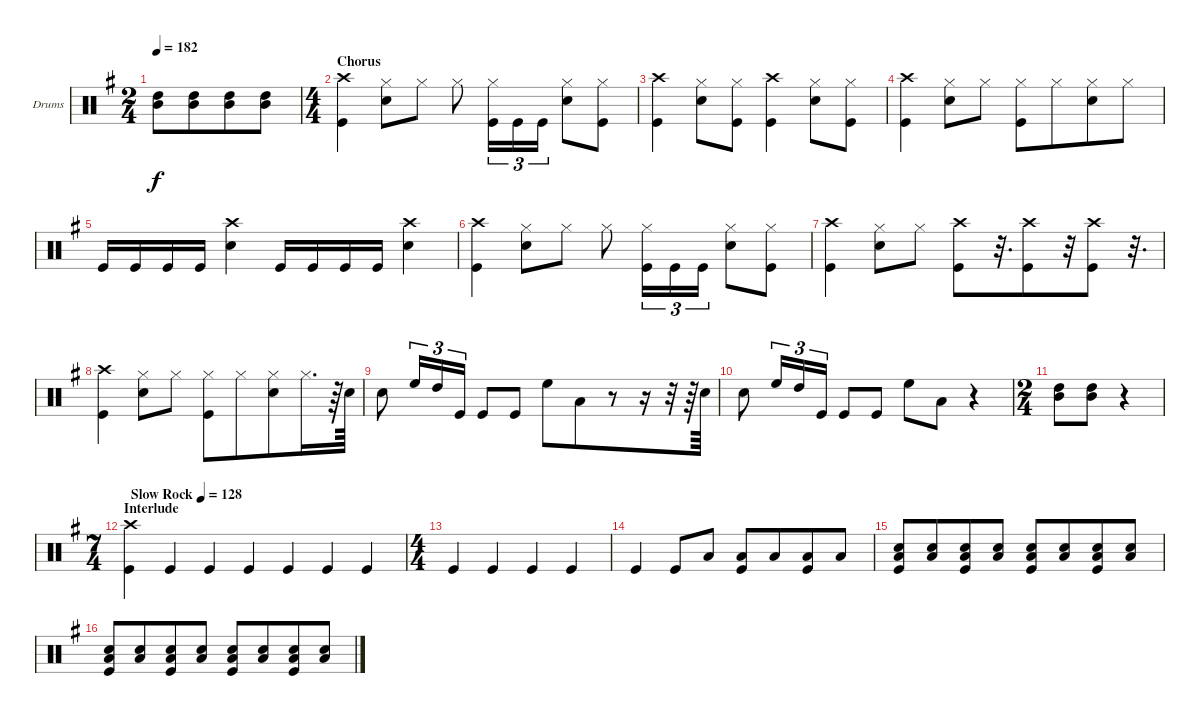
\bracketExtendMode groupsimilarinstruments
\firstSystemTrackNameOrientation horizontal
\otherSystemsTrackNameOrientation horizontal
\track ("Drumkit" "Drums") {instrument percussion}
\staff {score}
\articulation defaults
\ts (2 4)
\beaming (8 4 4 6)
\tempo 182
\clef neutral
\scale
1.07314
\ks g
("High Tom (hit)" "Mid Tom (hit)").8{dy f} ("High Tom (hit)" "Mid Tom (hit)").8 ("High Tom (hit)" "Mid Tom (hit)").8 ("High Tom (hit)" "Mid Tom (hit)").8 |
\ts (4 4)
\beaming (8 4 4 6)
\section ("" "Chorus")
\scale
0.92686 ("Kick (hit)" "Crash high (hit)").4 ("Snare (hit) 2" "Hi-Hat (closed)").8 "Hi-Hat (closed)".8 "Hi-Hat (closed)".8 ("Kick (hit)" "Hi-Hat (closed)").16{tu (3 2)} "Kick (hit)".16{tu (3 2)} "Kick (hit)".16{tu (3 2)} ("Snare (hit) 2" "Hi-Hat (closed)").8 ("Kick (hit)" "Hi-Hat (closed)").8 |
\scale
1.04288 ("Kick (hit)" "Crash high (hit)").4 ("Hi-Hat (closed)" "Snare (hit) 2").8 ("Kick (hit)" "Hi-Hat (closed)").8 ("Crash high (hit)" "Kick (hit)").4 ("Hi-Hat (closed)" "Snare (hit) 2").8 ("Kick (hit)" "Hi-Hat (closed)").8 |
\scale
0.957125 ("Kick (hit)" "Crash high (hit)").4 ("Hi-Hat (closed)" "Snare (hit) 2").8 "Hi-Hat (closed)".8 ("Hi-Hat (closed)" "Kick (hit)").8 "Hi-Hat (closed)".8 ("Snare (hit) 2" "Hi-Hat (closed)").8 "Hi-Hat (closed)".8 |
\scale
1.04288 "Kick (hit)".16 "Kick (hit)".16 "Kick (hit)".16 "Kick (hit)".16 ("Crash high (hit)" "Snare (hit) 2").4 "Kick (hit)".16 "Kick (hit)".16 "Kick (hit)".16 "Kick (hit)".16 ("Snare (hit) 2" "Crash high (hit)").4 |
\scale
0.957125 ("Kick (hit)" "Crash high (hit)").4 ("Snare (hit) 2" "Hi-Hat (closed)").8 "Hi-Hat (closed)".8 "Hi-Hat (closed)".8 ("Kick (hit)" "Hi-Hat (closed)").16{tu (3 2)} "Kick (hit)".16{tu (3 2)} "Kick (hit)".16{tu (3 2)} ("Snare (hit) 2" "Hi-Hat (closed)").8 ("Kick (hit)" "Hi-Hat (closed)").8 |
\scale
1.04288 ("Kick (hit)" "Crash high (hit)").4 ("Hi-Hat (closed)" "Snare (hit) 2").8 "Hi-Hat (closed)".8 ("Kick (hit)" "Crash high (hit)").8 r.32{d} ("Kick (hit)" "Crash high (hit)").8 r.32 ("Kick (hit)" "Crash high (hit)").8 r.32{d} |
\scale
0.957125 ("Kick (hit)" "Crash high (hit)").4 ("Hi-Hat (closed)" "Snare (hit) 2").8 "Hi-Hat (closed)".8 ("Hi-Hat (closed)" "Kick (hit)").8 "Hi-Hat (closed)".8 ("Snare (hit) 2" "Hi-Hat (closed)").8 "Hi-Hat (closed)".16{d} r.64 "Snare (hit) 2".64 |
\scale
1.04288 "Snare (hit) 2".8 "High Floor Tom (hit)".16{tu (3 2)} "High Tom (hit)".16{tu (3 2)} "Kick (hit)".16{tu (3 2)} "Kick (hit)".8 "Kick (hit)".8 "High Floor Tom (hit)".8 "Low Tom (hit)".8 r.8 r.16 r.32 r.64 "Snare (hit) 2".64 |
\scale
0.957125 "Snare (hit) 2".8 "High Floor Tom (hit)".16{tu (3 2)} "High Tom (hit)".16{tu (3 2)} "Kick (hit)".16{tu (3 2)} "Kick (hit)".8 "Kick (hit)".8 "High Floor Tom (hit)".8 "Low Tom (hit)".8 r.4 |
\ts (2 4)
\beaming (8 4 4 6)
\scale
1.07314 ("High Tom (hit)" "Mid Tom (hit)").8 ("High Tom (hit)" "Mid Tom (hit)").8 r.4 |
\ts (7 4)
\beaming (8 4 4 6)
\section ("" "Interlude")
\tempo (128 "Slow Rock")
\scale
0.92686 ("Kick (hit)" "Crash high (hit)").4 "Kick (hit)".4 "Kick (hit)".4 "Kick (hit)".4 "Kick (hit)".4 "Kick (hit)".4 "Kick (hit)".4 |
\ts (4 4)
\beaming (8 4 4 6)
\scale
1.07314 "Kick (hit)".4 "Kick (hit)".4 "Kick (hit)".4 "Kick (hit)".4 |
\scale
0.92686 "Kick (hit)".4 "Kick (hit)".8 "Low Tom (hit)".8 ("Low Tom (hit)" "Kick (hit)").8 "Low Tom (hit)".8 ("Low Tom (hit)" "Kick (hit)").8 "Low Tom (hit)".8 |
\scale
1.04288 ("Snare (hit) 2" "Low Tom (hit)" "Kick (hit)").8 ("Snare (hit) 2" "Low Tom (hit)").8 ("Snare (hit) 2" "Low Tom (hit)" "Kick (hit)").8 ("Snare (hit) 2" "Low Tom (hit)").8 ("Snare (hit) 2" "Low Tom (hit)" "Kick (hit)").8 ("Snare (hit) 2" "Low Tom (hit)").8 ("Snare (hit) 2" "Low Tom (hit)" "Kick (hit)").8 ("Snare (hit) 2" "Low Tom (hit)").8 |
\scale
0.957125 ("Snare (hit) 2" "Low Tom (hit)" "Kick (hit)").8 ("Snare (hit) 2" "Low Tom (hit)").8 ("Snare (hit) 2" "Low Tom (hit)" "Kick (hit)").8 ("Snare (hit) 2" "Low Tom (hit)").8 ("Snare (hit) 2" "Low Tom (hit)" "Kick (hit)").8 ("Snare (hit) 2" "Low Tom (hit)").8 ("Snare (hit) 2" "Low Tom (hit)" "Kick (hit)").8 ("Snare (hit) 2" "Low Tom (hit)").8
